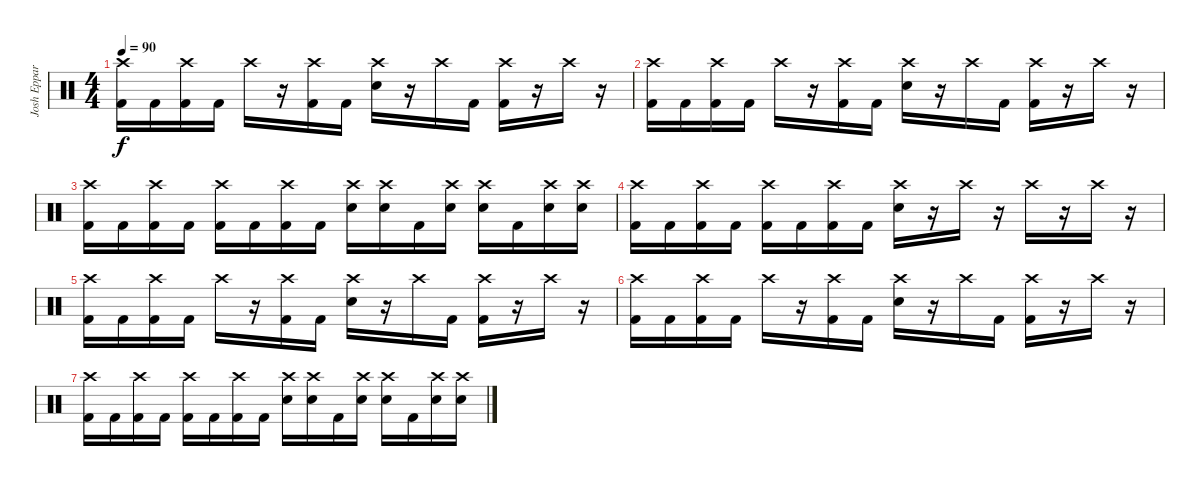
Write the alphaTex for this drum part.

\track ("Josh Eppard" "Josh Eppar") {instrument percussion}
\staff {score}
\articulation defaults
\ts (4 4)
\tempo 90
\clef neutral
\ks c
("Crash high (hit)" "Kick (hit) 2").16{dy f} "Kick (hit) 2".16 ("Crash high (hit)" "Kick (hit) 2").16 "Kick (hit) 2".16 "Crash high (hit)".16 r.16 ("Crash high (hit)" "Kick (hit) 2").16 "Kick (hit) 2".16 ("Crash high (hit)" "Electric Snare (hit)").16 r.16 "Crash high (hit)".16 "Kick (hit) 2".16 ("Crash high (hit)" "Kick (hit) 2").16 r.16 "Crash high (hit)".16 r.16 |
("Crash high (hit)" "Kick (hit) 2").16 "Kick (hit) 2".16 ("Crash high (hit)" "Kick (hit) 2").16 "Kick (hit) 2".16 "Crash high (hit)".16 r.16 ("Crash high (hit)" "Kick (hit) 2").16 "Kick (hit) 2".16 ("Crash high (hit)" "Electric Snare (hit)").16 r.16 "Crash high (hit)".16 "Kick (hit) 2".16 ("Crash high (hit)" "Kick (hit) 2").16 r.16 "Crash high (hit)".16 r.16 |
("Crash high (hit)" "Kick (hit) 2").16 "Kick (hit) 2".16 ("Crash high (hit)" "Kick (hit) 2").16 "Kick (hit) 2".16 ("Crash high (hit)" "Kick (hit) 2").16 "Kick (hit) 2".16 ("Crash high (hit)" "Kick (hit) 2").16 "Kick (hit) 2".16 ("Crash high (hit)" "Electric Snare (hit)").16 ("Crash high (hit)" "Electric Snare (hit)").16 "Kick (hit) 2".16 ("Crash high (hit)" "Electric Snare (hit)").16 ("Crash high (hit)" "Electric Snare (hit)").16 "Kick (hit) 2".16 ("Crash high (hit)" "Electric Snare (hit)").16 ("Crash high (hit)" "Electric Snare (hit)").16 |
("Crash high (hit)" "Kick (hit) 2").16 "Kick (hit) 2".16 ("Crash high (hit)" "Kick (hit) 2").16 "Kick (hit) 2".16 ("Crash high (hit)" "Kick (hit) 2").16 "Kick (hit) 2".16 ("Crash high (hit)" "Kick (hit) 2").16 "Kick (hit) 2".16 ("Crash high (hit)" "Electric Snare (hit)").16 r.16 "Crash high (hit)".16 r.16 "Crash high (hit)".16 r.16 "Crash high (hit)".16 r.16 |
("Crash high (hit)" "Kick (hit) 2").16 "Kick (hit) 2".16 ("Crash high (hit)" "Kick (hit) 2").16 "Kick (hit) 2".16 "Crash high (hit)".16 r.16 ("Crash high (hit)" "Kick (hit) 2").16 "Kick (hit) 2".16 ("Crash high (hit)" "Electric Snare (hit)").16 r.16 "Crash high (hit)".16 "Kick (hit) 2".16 ("Crash high (hit)" "Kick (hit) 2").16 r.16 "Crash high (hit)".16 r.16 |
("Crash high (hit)" "Kick (hit) 2").16 "Kick (hit) 2".16 ("Crash high (hit)" "Kick (hit) 2").16 "Kick (hit) 2".16 "Crash high (hit)".16 r.16 ("Crash high (hit)" "Kick (hit) 2").16 "Kick (hit) 2".16 ("Crash high (hit)" "Electric Snare (hit)").16 r.16 "Crash high (hit)".16 "Kick (hit) 2".16 ("Crash high (hit)" "Kick (hit) 2").16 r.16 "Crash high (hit)".16 r.16 |
("Crash high (hit)" "Kick (hit) 2").16 "Kick (hit) 2".16 ("Crash high (hit)" "Kick (hit) 2").16 "Kick (hit) 2".16 ("Crash high (hit)" "Kick (hit) 2").16 "Kick (hit) 2".16 ("Crash high (hit)" "Kick (hit) 2").16 "Kick (hit) 2".16 ("Crash high (hit)" "Electric Snare (hit)").16 ("Crash high (hit)" "Electric Snare (hit)").16 "Kick (hit) 2".16 ("Crash high (hit)" "Electric Snare (hit)").16 ("Crash high (hit)" "Electric Snare (hit)").16 "Kick (hit) 2".16 ("Crash high (hit)" "Electric Snare (hit)").16 ("Crash high (hit)" "Electric Snare (hit)").16
